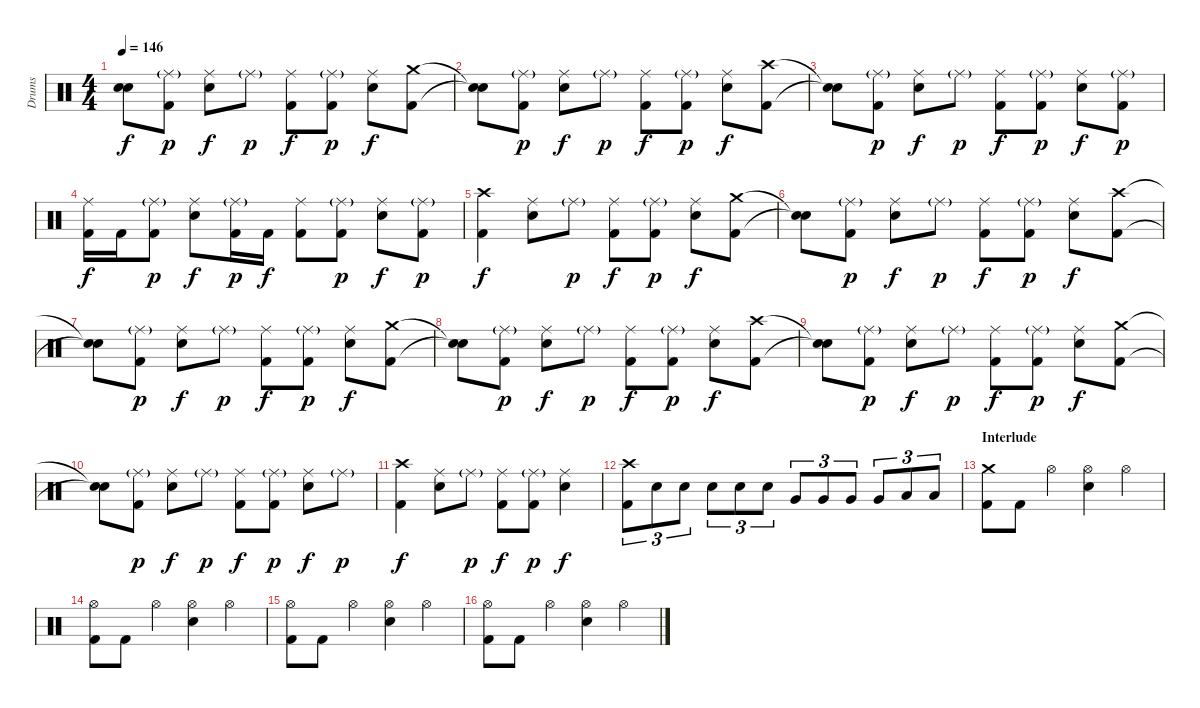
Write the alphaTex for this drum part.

\track ("Drums" "Drums") {instrument percussion}
\staff {score}
\articulation defaults
\ts (4 4)
\tempo 146
\clef neutral
\ks c
("Snare (hit)"{t} "Snare (hit)"{t}).8{dy f} ("Ride (middle)"{g} "Kick (hit) 2").8{dy p} ("Ride (middle)" "Snare (hit) 2").8{dy f} "Ride (middle)"{g}.8{dy p} ("Ride (middle)" "Kick (hit) 2").8{dy f} ("Ride (middle)"{g} "Kick (hit) 2").8{dy p} ("Ride (middle)" "Snare (hit) 2").8{dy f} ("Crash medium (hit)" "Kick (hit) 2").8 |
("Snare (hit)"{t} "Snare (hit)"{t}).8 ("Ride (middle)"{g} "Kick (hit) 2").8{dy p} ("Ride (middle)" "Snare (hit) 2").8{dy f} "Ride (middle)"{g}.8{dy p} ("Ride (middle)" "Kick (hit) 2").8{dy f} ("Ride (middle)"{g} "Kick (hit) 2").8{dy p} ("Ride (middle)" "Snare (hit) 2").8{dy f} ("Crash high (hit)" "Kick (hit) 2").8 |
("Snare (hit)"{t} "Snare (hit)"{t}).8 ("Ride (middle)"{g} "Kick (hit) 2").8{dy p} ("Ride (middle)" "Snare (hit) 2").8{dy f} "Ride (middle)"{g}.8{dy p} ("Ride (middle)" "Kick (hit) 2").8{dy f} ("Ride (middle)"{g} "Kick (hit) 2").8{dy p} ("Ride (middle)" "Snare (hit) 2").8{dy f} ("Ride (middle)"{g} "Kick (hit) 2").8{dy p} |
("Ride (middle)" "Kick (hit) 2").16{dy f} "Kick (hit) 2".16 ("Ride (middle)"{g} "Kick (hit) 2").8{dy p} ("Ride (middle)" "Snare (hit) 2").8{dy f} ("Ride (middle)"{g} "Kick (hit) 2").16{dy p} "Kick (hit) 2".16{dy f} ("Ride (middle)" "Kick (hit) 2").8 ("Ride (middle)"{g} "Kick (hit) 2").8{dy p} ("Ride (middle)" "Snare (hit) 2").8{dy f} ("Ride (middle)"{g} "Kick (hit) 2").8{dy p} |
("Crash high (hit)" "Kick (hit) 2").4{dy f} ("Ride (middle)" "Snare (hit) 2").8 "Ride (middle)"{g}.8{dy p} ("Ride (middle)" "Kick (hit) 2").8{dy f} ("Ride (middle)"{g} "Kick (hit) 2").8{dy p} ("Ride (middle)" "Snare (hit) 2").8{dy f} ("Crash medium (hit)" "Kick (hit) 2").8 |
("Snare (hit)"{t} "Snare (hit)"{t}).8 ("Ride (middle)"{g} "Kick (hit) 2").8{dy p} ("Ride (middle)" "Snare (hit) 2").8{dy f} "Ride (middle)"{g}.8{dy p} ("Ride (middle)" "Kick (hit) 2").8{dy f} ("Ride (middle)"{g} "Kick (hit) 2").8{dy p} ("Ride (middle)" "Snare (hit) 2").8{dy f} ("Crash high (hit)" "Kick (hit) 2").8 |
("Snare (hit)"{t} "Snare (hit)"{t}).8 ("Ride (middle)"{g} "Kick (hit) 2").8{dy p} ("Ride (middle)" "Snare (hit) 2").8{dy f} "Ride (middle)"{g}.8{dy p} ("Ride (middle)" "Kick (hit) 2").8{dy f} ("Ride (middle)"{g} "Kick (hit) 2").8{dy p} ("Ride (middle)" "Snare (hit) 2").8{dy f} ("Crash medium (hit)" "Kick (hit) 2").8 |
("Snare (hit)"{t} "Snare (hit)"{t}).8 ("Ride (middle)"{g} "Kick (hit) 2").8{dy p} ("Ride (middle)" "Snare (hit) 2").8{dy f} "Ride (middle)"{g}.8{dy p} ("Ride (middle)" "Kick (hit) 2").8{dy f} ("Ride (middle)"{g} "Kick (hit) 2").8{dy p} ("Ride (middle)" "Snare (hit) 2").8{dy f} ("Crash high (hit)" "Kick (hit) 2").8 |
("Snare (hit)"{t} "Snare (hit)"{t}).8 ("Ride (middle)"{g} "Kick (hit) 2").8{dy p} ("Ride (middle)" "Snare (hit) 2").8{dy f} "Ride (middle)"{g}.8{dy p} ("Ride (middle)" "Kick (hit) 2").8{dy f} ("Ride (middle)"{g} "Kick (hit) 2").8{dy p} ("Ride (middle)" "Snare (hit) 2").8{dy f} ("Crash medium (hit)" "Kick (hit) 2").8 |
("Snare (hit)"{t} "Snare (hit)"{t}).8 ("Ride (middle)"{g} "Kick (hit) 2").8{dy p} ("Ride (middle)" "Snare (hit) 2").8{dy f} "Ride (middle)"{g}.8{dy p} ("Ride (middle)" "Kick (hit) 2").8{dy f} ("Ride (middle)"{g} "Kick (hit) 2").8{dy p} ("Ride (middle)" "Snare (hit) 2").8{dy f} "Ride (middle)"{g}.8{dy p} |
("Crash high (hit)" "Kick (hit) 2").4{dy f} ("Ride (middle)" "Snare (hit) 2").8 "Ride (middle)"{g}.8{dy p} ("Ride (middle)" "Kick (hit) 2").8{dy f} ("Ride (middle)"{g} "Kick (hit) 2").8{dy p} ("Ride (middle)" "Snare (hit) 2").4{dy f} |
("Crash high (hit)" "Kick (hit) 2").8{tu (3 2)} "Snare (hit) 2".8{tu (3 2)} "Snare (hit) 2".8{tu (3 2)} "Snare (hit) 2".8{tu (3 2)} "Snare (hit) 2".8{tu (3 2)} "Snare (hit) 2".8{tu (3 2)} "Very Low Tom (hit)".8{tu (3 2)} "Very Low Tom (hit)".8{tu (3 2)} "Very Low Tom (hit)".8{tu (3 2)} "Very Low Tom (hit)".8{tu (3 2)} "Low Floor Tom (hit)".8{tu (3 2)} "Low Floor Tom (hit)".8{tu (3 2)} |
\section ("" "Interlude")
("Crash medium (hit)" "Kick (hit) 2").8 "Kick (hit) 2".8 "Hi-Hat (open)".4 ("Hi-Hat (open)" "Snare (hit) 2").4 "Hi-Hat (open)".4 |
("Hi-Hat (open)" "Kick (hit) 2").8 "Kick (hit) 2".8 "Hi-Hat (open)".4 ("Hi-Hat (open)" "Snare (hit) 2").4 "Hi-Hat (open)".4 |
("Hi-Hat (open)" "Kick (hit) 2").8 "Kick (hit) 2".8 "Hi-Hat (open)".4 ("Hi-Hat (open)" "Snare (hit) 2").4 "Hi-Hat (open)".4 |
("Hi-Hat (open)" "Kick (hit) 2").8 "Kick (hit) 2".8 "Hi-Hat (open)".4 ("Hi-Hat (open)" "Snare (hit) 2").4 "Hi-Hat (open)".4
